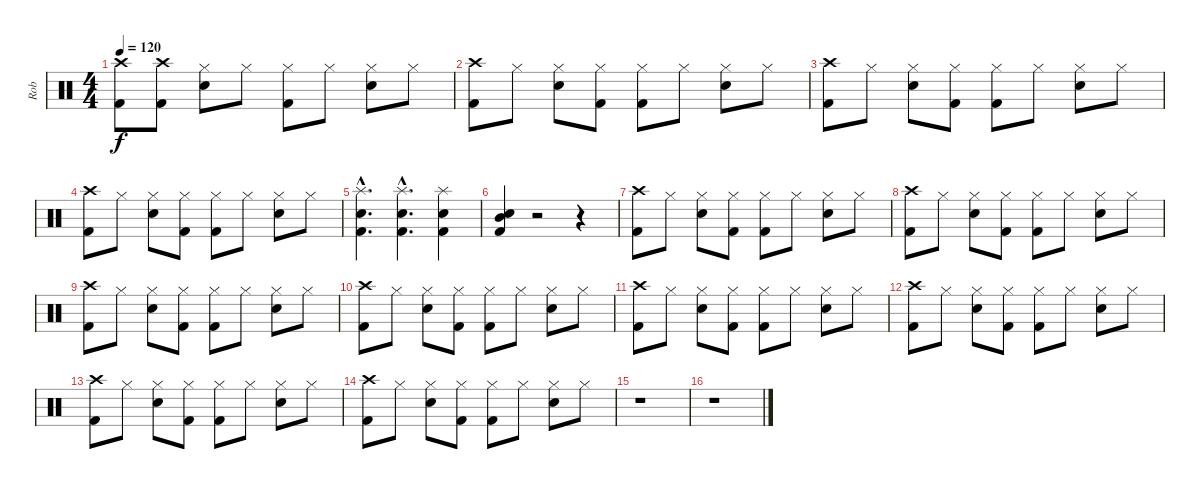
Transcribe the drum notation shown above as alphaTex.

\track ("Rob" "Rob") {instrument percussion}
\staff {score}
\articulation defaults
\ts (4 4)
\tempo 120
\clef neutral
\ks c
("Crash high (hit)" "Kick (hit) 2").8{dy f} ("Crash high (hit)" "Kick (hit) 2").8 ("Hi-Hat (closed)" "Snare (hit) 2").8 "Hi-Hat (closed)".8 ("Hi-Hat (closed)" "Kick (hit) 2").8 "Hi-Hat (closed)".8 ("Hi-Hat (closed)" "Snare (hit) 2").8 "Hi-Hat (closed)".8 |
("Crash high (hit)" "Kick (hit) 2").8 "Hi-Hat (closed)".8 ("Hi-Hat (closed)" "Snare (hit) 2").8 ("Hi-Hat (closed)" "Kick (hit) 2").8 ("Hi-Hat (closed)" "Kick (hit) 2").8 "Hi-Hat (closed)".8 ("Hi-Hat (closed)" "Snare (hit) 2").8 "Hi-Hat (closed)".8 |
("Crash high (hit)" "Kick (hit) 2").8 "Hi-Hat (closed)".8 ("Hi-Hat (closed)" "Snare (hit) 2").8 ("Hi-Hat (closed)" "Kick (hit) 2").8 ("Hi-Hat (closed)" "Kick (hit) 2").8 "Hi-Hat (closed)".8 ("Hi-Hat (closed)" "Snare (hit) 2").8 "Hi-Hat (closed)".8 |
("Crash high (hit)" "Kick (hit) 2").8 "Hi-Hat (closed)".8 ("Hi-Hat (closed)" "Snare (hit) 2").8 ("Hi-Hat (closed)" "Kick (hit) 2").8 ("Hi-Hat (closed)" "Kick (hit) 2").8 "Hi-Hat (closed)".8 ("Hi-Hat (closed)" "Snare (hit) 2").8 "Hi-Hat (closed)".8 |
("Splash (hit)"{hac} "Snare (hit) 2"{hac} "Kick (hit) 2"{hac}).4{d} ("Splash (hit)"{hac} "Snare (hit) 2"{hac} "Kick (hit) 2"{hac}).4{d} ("Splash (hit)" "Snare (hit) 2" "Kick (hit) 2").4 |
("Mid Tom (hit)" "Kick (hit) 2" "Snare (hit) 2").4 r.2 r.4 |
("Crash high (hit)" "Kick (hit) 2").8 "Hi-Hat (closed)".8 ("Hi-Hat (closed)" "Snare (hit) 2").8 ("Hi-Hat (closed)" "Kick (hit) 2").8 ("Hi-Hat (closed)" "Kick (hit) 2").8 "Hi-Hat (closed)".8 ("Hi-Hat (closed)" "Snare (hit) 2").8 "Hi-Hat (closed)".8 |
("Crash high (hit)" "Kick (hit) 2").8 "Hi-Hat (closed)".8 ("Hi-Hat (closed)" "Snare (hit) 2").8 ("Hi-Hat (closed)" "Kick (hit) 2").8 ("Hi-Hat (closed)" "Kick (hit) 2").8 "Hi-Hat (closed)".8 ("Hi-Hat (closed)" "Snare (hit) 2").8 "Hi-Hat (closed)".8 |
("Crash high (hit)" "Kick (hit) 2").8 "Hi-Hat (closed)".8 ("Hi-Hat (closed)" "Snare (hit) 2").8 ("Hi-Hat (closed)" "Kick (hit) 2").8 ("Hi-Hat (closed)" "Kick (hit) 2").8 "Hi-Hat (closed)".8 ("Hi-Hat (closed)" "Snare (hit) 2").8 "Hi-Hat (closed)".8 |
("Crash high (hit)" "Kick (hit) 2").8 "Hi-Hat (closed)".8 ("Hi-Hat (closed)" "Snare (hit) 2").8 ("Hi-Hat (closed)" "Kick (hit) 2").8 ("Hi-Hat (closed)" "Kick (hit) 2").8 "Hi-Hat (closed)".8 ("Hi-Hat (closed)" "Snare (hit) 2").8 "Hi-Hat (closed)".8 |
("Crash high (hit)" "Kick (hit) 2").8 "Hi-Hat (closed)".8 ("Hi-Hat (closed)" "Snare (hit) 2").8 ("Hi-Hat (closed)" "Kick (hit) 2").8 ("Hi-Hat (closed)" "Kick (hit) 2").8 "Hi-Hat (closed)".8 ("Hi-Hat (closed)" "Snare (hit) 2").8 "Hi-Hat (closed)".8 |
("Crash high (hit)" "Kick (hit) 2").8 "Hi-Hat (closed)".8 ("Hi-Hat (closed)" "Snare (hit) 2").8 ("Hi-Hat (closed)" "Kick (hit) 2").8 ("Hi-Hat (closed)" "Kick (hit) 2").8 "Hi-Hat (closed)".8 ("Hi-Hat (closed)" "Snare (hit) 2").8 "Hi-Hat (closed)".8 |
("Crash high (hit)" "Kick (hit) 2").8 "Hi-Hat (closed)".8 ("Hi-Hat (closed)" "Snare (hit) 2").8 ("Hi-Hat (closed)" "Kick (hit) 2").8 ("Hi-Hat (closed)" "Kick (hit) 2").8 "Hi-Hat (closed)".8 ("Hi-Hat (closed)" "Snare (hit) 2").8 "Hi-Hat (closed)".8 |
("Crash high (hit)" "Kick (hit) 2").8 "Hi-Hat (closed)".8 ("Hi-Hat (closed)" "Snare (hit) 2").8 ("Hi-Hat (closed)" "Kick (hit) 2").8 ("Hi-Hat (closed)" "Kick (hit) 2").8 "Hi-Hat (closed)".8 ("Hi-Hat (closed)" "Snare (hit) 2").8 "Hi-Hat (closed)".8 |
r.1 |
r.1
